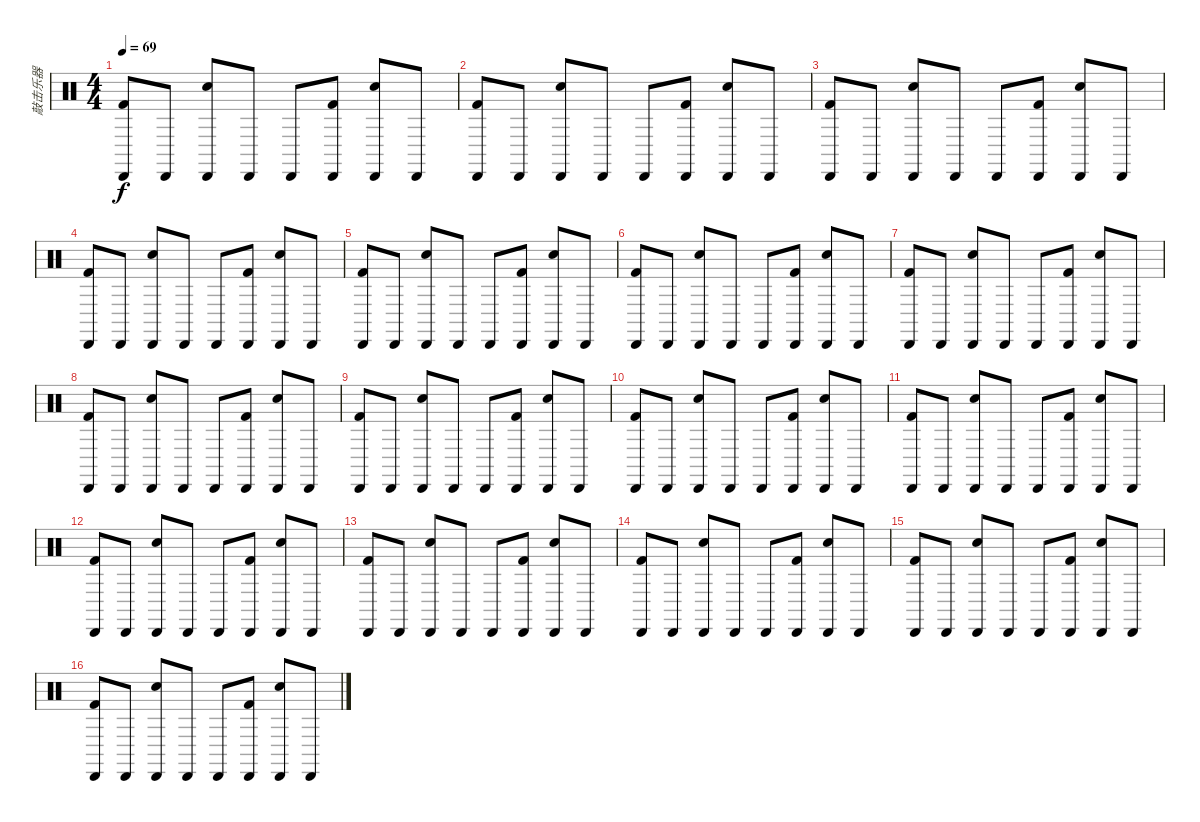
\track ("敲击乐器" "敲击乐器") {instrument percussion}
\staff {score}
\articulation defaults
\ts (4 4)
\tempo 69
\clef neutral
\ks c
("Cabasa (hit)" "Kick (hit) 2").8{dy f} "Cabasa (hit)".8 ("Cabasa (hit)" "Electric Snare (hit)").8 "Cabasa (hit)".8 "Cabasa (hit)".8 ("Cabasa (hit)" "Kick (hit) 2").8 ("Cabasa (hit)" "Electric Snare (hit)").8 "Cabasa (hit)".8 |
("Cabasa (hit)" "Kick (hit) 2").8 "Cabasa (hit)".8 ("Cabasa (hit)" "Electric Snare (hit)").8 "Cabasa (hit)".8 "Cabasa (hit)".8 ("Cabasa (hit)" "Kick (hit) 2").8 ("Cabasa (hit)" "Electric Snare (hit)").8 "Cabasa (hit)".8 |
("Cabasa (hit)" "Kick (hit) 2").8 "Cabasa (hit)".8 ("Cabasa (hit)" "Electric Snare (hit)").8 "Cabasa (hit)".8 "Cabasa (hit)".8 ("Cabasa (hit)" "Kick (hit) 2").8 ("Cabasa (hit)" "Electric Snare (hit)").8 "Cabasa (hit)".8 |
("Cabasa (hit)" "Kick (hit) 2").8 "Cabasa (hit)".8 ("Cabasa (hit)" "Electric Snare (hit)").8 "Cabasa (hit)".8 "Cabasa (hit)".8 ("Cabasa (hit)" "Kick (hit) 2").8 ("Cabasa (hit)" "Electric Snare (hit)").8 "Cabasa (hit)".8 |
("Cabasa (hit)" "Kick (hit) 2").8 "Cabasa (hit)".8 ("Cabasa (hit)" "Electric Snare (hit)").8 "Cabasa (hit)".8 "Cabasa (hit)".8 ("Cabasa (hit)" "Kick (hit) 2").8 ("Cabasa (hit)" "Electric Snare (hit)").8 "Cabasa (hit)".8 |
("Cabasa (hit)" "Kick (hit) 2").8 "Cabasa (hit)".8 ("Cabasa (hit)" "Electric Snare (hit)").8 "Cabasa (hit)".8 "Cabasa (hit)".8 ("Cabasa (hit)" "Kick (hit) 2").8 ("Cabasa (hit)" "Electric Snare (hit)").8 "Cabasa (hit)".8 |
("Cabasa (hit)" "Kick (hit) 2").8 "Cabasa (hit)".8 ("Cabasa (hit)" "Electric Snare (hit)").8 "Cabasa (hit)".8 "Cabasa (hit)".8 ("Cabasa (hit)" "Kick (hit) 2").8 ("Cabasa (hit)" "Electric Snare (hit)").8 "Cabasa (hit)".8 |
("Cabasa (hit)" "Kick (hit) 2").8 "Cabasa (hit)".8 ("Cabasa (hit)" "Electric Snare (hit)").8 "Cabasa (hit)".8 "Cabasa (hit)".8 ("Cabasa (hit)" "Kick (hit) 2").8 ("Cabasa (hit)" "Electric Snare (hit)").8 "Cabasa (hit)".8 |
("Cabasa (hit)" "Kick (hit) 2").8 "Cabasa (hit)".8 ("Cabasa (hit)" "Electric Snare (hit)").8 "Cabasa (hit)".8 "Cabasa (hit)".8 ("Cabasa (hit)" "Kick (hit) 2").8 ("Cabasa (hit)" "Electric Snare (hit)").8 "Cabasa (hit)".8 |
("Cabasa (hit)" "Kick (hit) 2").8 "Cabasa (hit)".8 ("Cabasa (hit)" "Electric Snare (hit)").8 "Cabasa (hit)".8 "Cabasa (hit)".8 ("Cabasa (hit)" "Kick (hit) 2").8 ("Cabasa (hit)" "Electric Snare (hit)").8 "Cabasa (hit)".8 |
("Cabasa (hit)" "Kick (hit) 2").8 "Cabasa (hit)".8 ("Cabasa (hit)" "Electric Snare (hit)").8 "Cabasa (hit)".8 "Cabasa (hit)".8 ("Cabasa (hit)" "Kick (hit) 2").8 ("Cabasa (hit)" "Electric Snare (hit)").8 "Cabasa (hit)".8 |
("Cabasa (hit)" "Kick (hit) 2").8 "Cabasa (hit)".8 ("Cabasa (hit)" "Electric Snare (hit)").8 "Cabasa (hit)".8 "Cabasa (hit)".8 ("Cabasa (hit)" "Kick (hit) 2").8 ("Cabasa (hit)" "Electric Snare (hit)").8 "Cabasa (hit)".8 |
("Cabasa (hit)" "Kick (hit) 2").8 "Cabasa (hit)".8 ("Cabasa (hit)" "Electric Snare (hit)").8 "Cabasa (hit)".8 "Cabasa (hit)".8 ("Cabasa (hit)" "Kick (hit) 2").8 ("Cabasa (hit)" "Electric Snare (hit)").8 "Cabasa (hit)".8 |
("Cabasa (hit)" "Kick (hit) 2").8 "Cabasa (hit)".8 ("Cabasa (hit)" "Electric Snare (hit)").8 "Cabasa (hit)".8 "Cabasa (hit)".8 ("Cabasa (hit)" "Kick (hit) 2").8 ("Cabasa (hit)" "Electric Snare (hit)").8 "Cabasa (hit)".8 |
("Cabasa (hit)" "Kick (hit) 2").8 "Cabasa (hit)".8 ("Cabasa (hit)" "Electric Snare (hit)").8 "Cabasa (hit)".8 "Cabasa (hit)".8 ("Cabasa (hit)" "Kick (hit) 2").8 ("Cabasa (hit)" "Electric Snare (hit)").8 "Cabasa (hit)".8 |
("Cabasa (hit)" "Kick (hit) 2").8 "Cabasa (hit)".8 ("Cabasa (hit)" "Electric Snare (hit)").8 "Cabasa (hit)".8 "Cabasa (hit)".8 ("Cabasa (hit)" "Kick (hit) 2").8 ("Cabasa (hit)" "Electric Snare (hit)").8 "Cabasa (hit)".8
